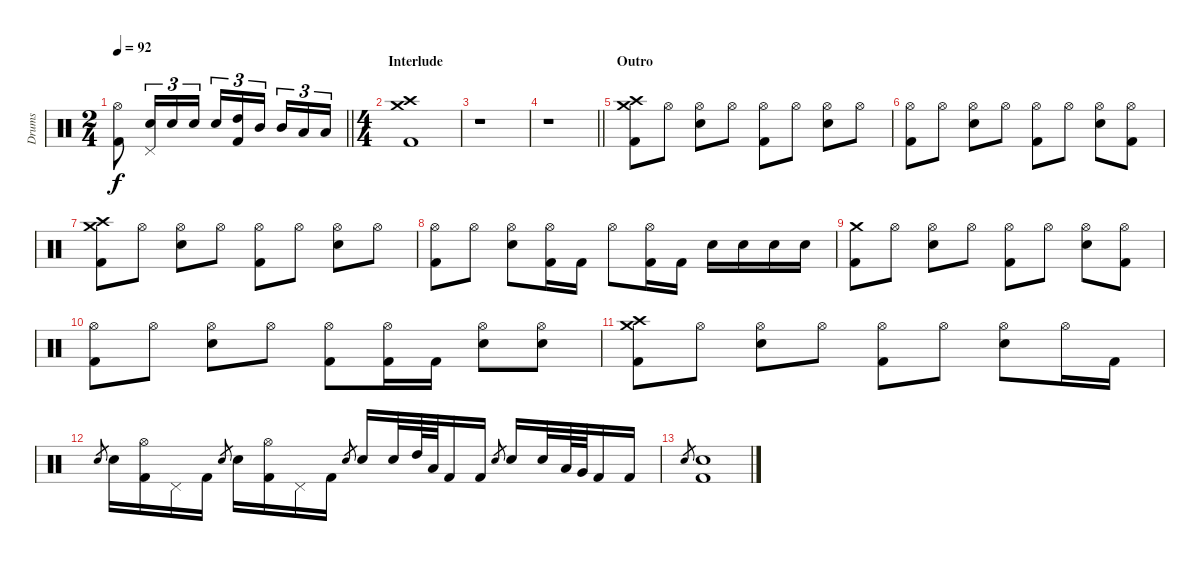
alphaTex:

\track ("Drums" "Drums") {instrument percussion}
\staff {score}
\articulation defaults
\ts (2 4)
\tempo 92
\clef neutral
\barLineRight lightlight
\ks c
("Hi-Hat (open)" "Kick (hit) 2").8{dy f} ("Pedal Hi-Hat (hit)" "Electric Snare (hit)").16{tu (3 2)} "Electric Snare (hit)".16{tu (3 2)} "Electric Snare (hit)".16{tu (3 2)} "Electric Snare (hit)".16{tu (3 2)} ("High Tom (hit)" "Kick (hit) 2").16{tu (3 2)} "Mid Tom (hit)".16{tu (3 2) beam splitsecondary} "Mid Tom (hit)".16{tu (3 2)} "Low Tom (hit)".16{tu (3 2)} "Low Tom (hit)".16{tu (3 2)} |
\ts (4 4)
\section ("" "Interlude")
("Crash medium (hit)" "Crash high (hit)" "Kick (hit) 2").1 |
r.1 |
\barLineRight lightlight
r.1 |
\section ("" "Outro")
("Crash medium (hit)" "Crash high (hit)" "Kick (hit) 2").8 "Hi-Hat (open)".8 ("Hi-Hat (open)" "Electric Snare (hit)").8 "Hi-Hat (open)".8 ("Hi-Hat (open)" "Kick (hit) 2").8 "Hi-Hat (open)".8 ("Hi-Hat (open)" "Electric Snare (hit)").8 "Hi-Hat (open)".8 |
("Hi-Hat (open)" "Kick (hit) 2").8 "Hi-Hat (open)".8 ("Hi-Hat (open)" "Electric Snare (hit)").8 "Hi-Hat (open)".8 ("Hi-Hat (open)" "Kick (hit) 2").8 "Hi-Hat (open)".8 ("Hi-Hat (open)" "Electric Snare (hit)").8 ("Hi-Hat (open)" "Kick (hit) 2").8 |
("Crash medium (hit)" "Crash high (hit)" "Kick (hit) 2").8 "Hi-Hat (open)".8 ("Hi-Hat (open)" "Electric Snare (hit)").8 "Hi-Hat (open)".8 ("Hi-Hat (open)" "Kick (hit) 2").8 "Hi-Hat (open)".8 ("Hi-Hat (open)" "Electric Snare (hit)").8 "Hi-Hat (open)".8 |
("Hi-Hat (open)" "Kick (hit) 2").8 "Hi-Hat (open)".8 ("Hi-Hat (open)" "Electric Snare (hit)").8 ("Hi-Hat (open)" "Kick (hit) 2").16 "Kick (hit) 2".16 "Hi-Hat (open)".8 ("Hi-Hat (open)" "Kick (hit) 2").16 "Kick (hit) 2".16 "Electric Snare (hit)".16 "Electric Snare (hit)".16 "Electric Snare (hit)".16 "Electric Snare (hit)".16 |
("Crash medium (hit)" "Kick (hit) 2").8 "Hi-Hat (open)".8 ("Hi-Hat (open)" "Electric Snare (hit)").8 "Hi-Hat (open)".8 ("Hi-Hat (open)" "Kick (hit) 2").8 "Hi-Hat (open)".8 ("Hi-Hat (open)" "Electric Snare (hit)").8 ("Hi-Hat (open)" "Kick (hit) 2").8 |
("Hi-Hat (open)" "Kick (hit) 2").8 "Hi-Hat (open)".8 ("Hi-Hat (open)" "Electric Snare (hit)").8 "Hi-Hat (open)".8 ("Hi-Hat (open)" "Kick (hit) 2").8 ("Hi-Hat (open)" "Kick (hit) 2").16 "Kick (hit) 2".16 ("Hi-Hat (open)" "Electric Snare (hit)").8 ("Hi-Hat (open)" "Electric Snare (hit)").8 |
("Crash medium (hit)" "Crash high (hit)" "Kick (hit) 2").8 "Hi-Hat (open)".8 ("Hi-Hat (open)" "Electric Snare (hit)").8 "Hi-Hat (open)".8 ("Hi-Hat (open)" "Kick (hit) 2").8 "Hi-Hat (open)".8 ("Hi-Hat (open)" "Electric Snare (hit)").8 "Hi-Hat (open)".16 "Kick (hit) 2".16 |
"Electric Snare (hit)".8{gr} "Electric Snare (hit)".16 ("Hi-Hat (open)" "Kick (hit) 2").16 "Pedal Hi-Hat (hit)".16 "Kick (hit) 2".16 "Electric Snare (hit)".8{gr} "Electric Snare (hit)".16 ("Hi-Hat (open)" "Kick (hit) 2").16 "Pedal Hi-Hat (hit)".16 "Kick (hit) 2".16 "Electric Snare (hit)".8{gr} "Electric Snare (hit)".16 "Electric Snare (hit)".32 "High Tom (hit)".64 "Low Tom (hit)".64 "Kick (hit) 2".16 "Kick (hit) 2".16 "Electric Snare (hit)".8{gr} "Electric Snare (hit)".16 "Electric Snare (hit)".32 "Low Tom (hit)".64 "Very Low Tom (hit)".64 "Kick (hit) 2".16 "Kick (hit) 2".16 |
"Electric Snare (hit)".8{gr} ("Electric Snare (hit)" "Kick (hit) 2").1
